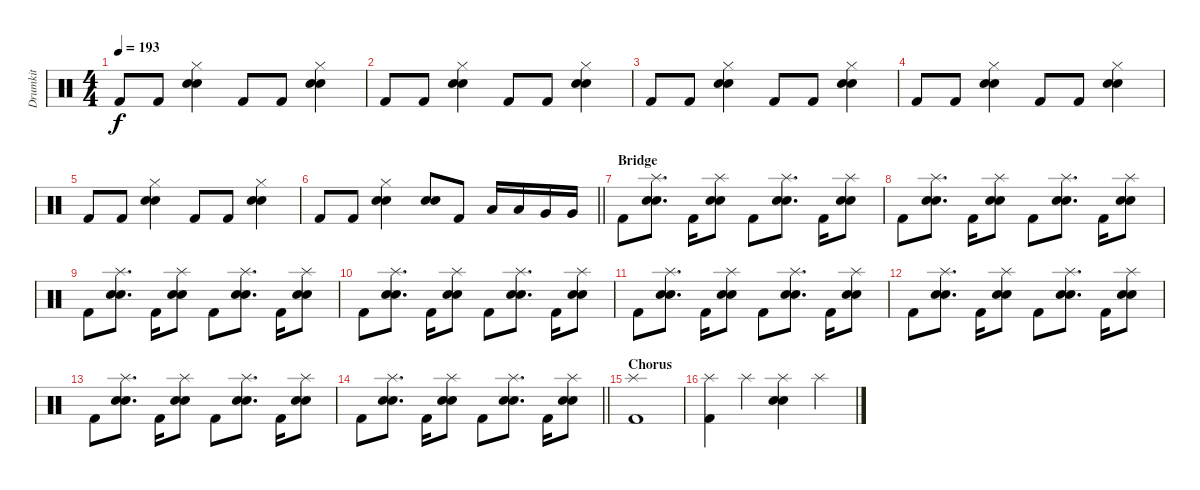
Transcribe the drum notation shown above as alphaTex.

\track ("Drumkit" "Drumkit") {instrument percussion}
\staff {score}
\articulation defaults
\ts (4 4)
\tempo 193
\clef neutral
\ks c "Kick (hit) 2".8{dy f} "Kick (hit) 2".8
("Snare (hit) 2" "Hi-Hat (closed)" "Electric Snare (hit)").4 "Kick (hit) 2".8 "Kick (hit) 2".8 ("Snare (hit) 2" "Hi-Hat (closed)" "Electric Snare (hit)").4 |
"Kick (hit) 2".8 "Kick (hit) 2".8 ("Snare (hit) 2" "Hi-Hat (closed)" "Electric Snare (hit)").4 "Kick (hit) 2".8 "Kick (hit) 2".8 ("Snare (hit) 2" "Hi-Hat (closed)" "Electric Snare (hit)").4 |
"Kick (hit) 2".8 "Kick (hit) 2".8 ("Snare (hit) 2" "Hi-Hat (closed)" "Electric Snare (hit)").4 "Kick (hit) 2".8 "Kick (hit) 2".8 ("Snare (hit) 2" "Hi-Hat (closed)" "Electric Snare (hit)").4 |
"Kick (hit) 2".8 "Kick (hit) 2".8 ("Snare (hit) 2" "Hi-Hat (closed)" "Electric Snare (hit)").4 "Kick (hit) 2".8 "Kick (hit) 2".8 ("Snare (hit) 2" "Hi-Hat (closed)" "Electric Snare (hit)").4 |
"Kick (hit) 2".8 "Kick (hit) 2".8 ("Snare (hit) 2" "Hi-Hat (closed)" "Electric Snare (hit)").4 "Kick (hit) 2".8 "Kick (hit) 2".8 ("Snare (hit) 2" "Hi-Hat (closed)" "Electric Snare (hit)").4 |
\barLineRight lightlight "Kick (hit) 2".8 "Kick (hit) 2".8
("Snare (hit) 2" "Hi-Hat (closed)" "Electric Snare (hit)").4 ("Snare (hit) 2" "Electric Snare (hit)").8 "Kick (hit) 2".8 "Low Tom (hit)".16 "Low Tom (hit)".16 "Very Low Tom (hit)".16 "Very Low Tom (hit)".16 |
\section ("" "Bridge")
"Kick (hit) 2".8 ("Splash (hit)" "Electric Snare (hit)" "Snare (hit) 2").8{d} "Kick (hit) 2".16 ("Splash (hit)" "Electric Snare (hit)" "Snare (hit) 2").8 "Kick (hit) 2".8 ("Splash (hit)" "Electric Snare (hit)" "Snare (hit) 2").8{d} "Kick (hit) 2".16 ("Splash (hit)" "Electric Snare (hit)" "Snare (hit) 2").8 |
"Kick (hit) 2".8 ("Splash (hit)" "Electric Snare (hit)" "Snare (hit) 2").8{d} "Kick (hit) 2".16 ("Splash (hit)" "Electric Snare (hit)" "Snare (hit) 2").8 "Kick (hit) 2".8 ("Splash (hit)" "Electric Snare (hit)" "Snare (hit) 2").8{d} "Kick (hit) 2".16 ("Splash (hit)" "Electric Snare (hit)" "Snare (hit) 2").8 |
"Kick (hit) 2".8 ("Splash (hit)" "Electric Snare (hit)" "Snare (hit) 2").8{d} "Kick (hit) 2".16 ("Splash (hit)" "Electric Snare (hit)" "Snare (hit) 2").8 "Kick (hit) 2".8 ("Splash (hit)" "Electric Snare (hit)" "Snare (hit) 2").8{d} "Kick (hit) 2".16 ("Splash (hit)" "Electric Snare (hit)" "Snare (hit) 2").8 |
"Kick (hit) 2".8 ("Splash (hit)" "Electric Snare (hit)" "Snare (hit) 2").8{d} "Kick (hit) 2".16 ("Splash (hit)" "Electric Snare (hit)" "Snare (hit) 2").8 "Kick (hit) 2".8 ("Splash (hit)" "Electric Snare (hit)" "Snare (hit) 2").8{d} "Kick (hit) 2".16 ("Splash (hit)" "Electric Snare (hit)" "Snare (hit) 2").8 |
"Kick (hit) 2".8 ("Splash (hit)" "Electric Snare (hit)" "Snare (hit) 2").8{d} "Kick (hit) 2".16 ("Splash (hit)" "Electric Snare (hit)" "Snare (hit) 2").8 "Kick (hit) 2".8 ("Splash (hit)" "Electric Snare (hit)" "Snare (hit) 2").8{d} "Kick (hit) 2".16 ("Splash (hit)" "Electric Snare (hit)" "Snare (hit) 2").8 |
"Kick (hit) 2".8 ("Splash (hit)" "Electric Snare (hit)" "Snare (hit) 2").8{d} "Kick (hit) 2".16 ("Splash (hit)" "Electric Snare (hit)" "Snare (hit) 2").8 "Kick (hit) 2".8 ("Splash (hit)" "Electric Snare (hit)" "Snare (hit) 2").8{d} "Kick (hit) 2".16 ("Splash (hit)" "Electric Snare (hit)" "Snare (hit) 2").8 |
"Kick (hit) 2".8 ("Splash (hit)" "Electric Snare (hit)" "Snare (hit) 2").8{d} "Kick (hit) 2".16 ("Splash (hit)" "Electric Snare (hit)" "Snare (hit) 2").8 "Kick (hit) 2".8 ("Splash (hit)" "Electric Snare (hit)" "Snare (hit) 2").8{d} "Kick (hit) 2".16 ("Splash (hit)" "Electric Snare (hit)" "Snare (hit) 2").8 |
\barLineRight lightlight "Kick (hit) 2".8
("Splash (hit)" "Electric Snare (hit)" "Snare (hit) 2").8{d} "Kick (hit) 2".16 ("Splash (hit)" "Electric Snare (hit)" "Snare (hit) 2").8 "Kick (hit) 2".8 ("Splash (hit)" "Electric Snare (hit)" "Snare (hit) 2").8{d} "Kick (hit) 2".16 ("Splash (hit)" "Electric Snare (hit)" "Snare (hit) 2").8 |
\section ("" "Chorus")
("Splash (hit)" "Kick (hit) 2").1 |
("Kick (hit) 2" "Splash (hit)").4 "Splash (hit)".4 ("Splash (hit)" "Snare (hit) 2" "Electric Snare (hit)").4 "Splash (hit)".4
